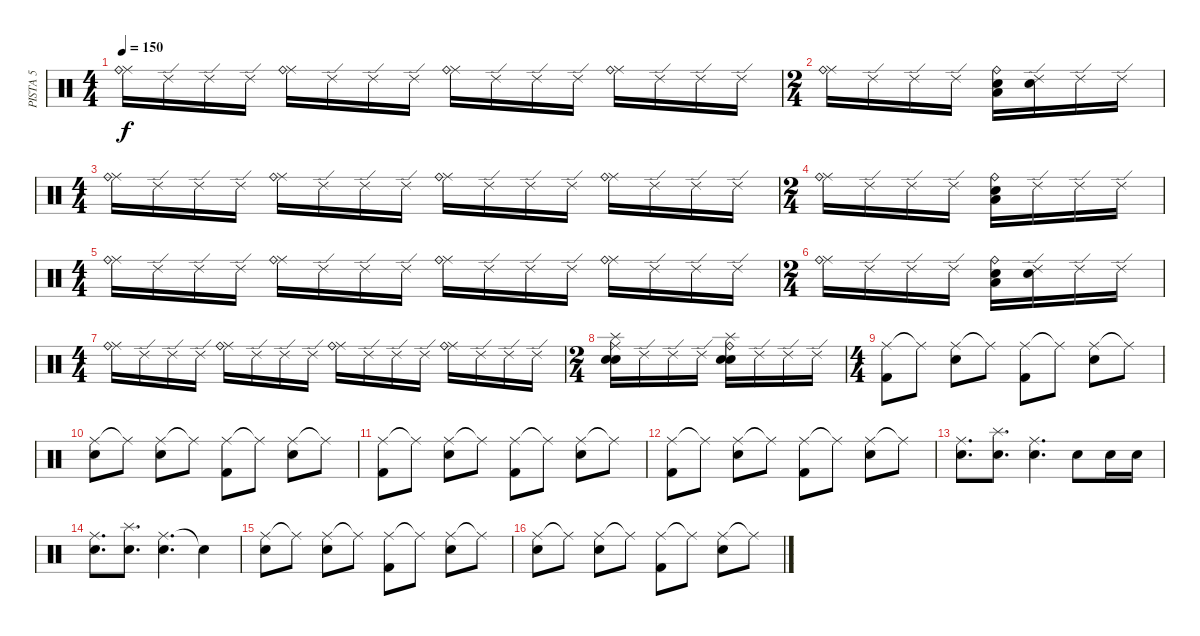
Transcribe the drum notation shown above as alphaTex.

\track ("PISTA 5" "PISTA 5") {instrument percussion}
\staff {score}
\articulation defaults
\ts (4 4)
\tempo 150
\clef neutral
\ks c
("Ride (middle)" "Ride (bell)").16{dy f} "Ride (edge) 2".16 "Ride (edge) 2".16 "Ride (edge) 2".16 ("Ride (middle)" "Ride (bell)").16 "Ride (edge) 2".16 "Ride (edge) 2".16 "Ride (edge) 2".16 ("Ride (middle)" "Ride (bell)").16 "Ride (edge) 2".16 "Ride (edge) 2".16 "Ride (edge) 2".16 ("Ride (middle)" "Ride (bell)").16 "Ride (edge) 2".16 "Ride (edge) 2".16 "Ride (edge) 2".16 |
\ts (2 4)
("Ride (middle)" "Ride (bell)").16 "Ride (edge) 2".16 "Ride (edge) 2".16 "Ride (edge) 2".16 ("Ride (bell)" "Low Floor Tom (hit)" "Snare (hit) 2").16 ("Ride (edge) 2" "Electric Snare (hit)").16 "Ride (edge) 2".16 "Ride (edge) 2".16 |
\ts (4 4)
("Ride (middle)" "Ride (bell)").16 "Ride (edge) 2".16 "Ride (edge) 2".16 "Ride (edge) 2".16 ("Ride (middle)" "Ride (bell)").16 "Ride (edge) 2".16 "Ride (edge) 2".16 "Ride (edge) 2".16 ("Ride (middle)" "Ride (bell)").16 "Ride (edge) 2".16 "Ride (edge) 2".16 "Ride (edge) 2".16 ("Ride (middle)" "Ride (bell)").16 "Ride (edge) 2".16 "Ride (edge) 2".16 "Ride (edge) 2".16 |
\ts (2 4)
("Ride (middle)" "Ride (bell)").16 "Ride (edge) 2".16 "Ride (edge) 2".16 "Ride (edge) 2".16 ("Ride (bell)" "Low Floor Tom (hit)" "Snare (hit) 2").16 "Ride (edge) 2".16 "Ride (edge) 2".16 "Ride (edge) 2".16 |
\ts (4 4)
("Ride (middle)" "Ride (bell)").16 "Ride (edge) 2".16 "Ride (edge) 2".16 "Ride (edge) 2".16 ("Ride (middle)" "Ride (bell)").16 "Ride (edge) 2".16 "Ride (edge) 2".16 "Ride (edge) 2".16 ("Ride (middle)" "Ride (bell)").16 "Ride (edge) 2".16 "Ride (edge) 2".16 "Ride (edge) 2".16 ("Ride (middle)" "Ride (bell)").16 "Ride (edge) 2".16 "Ride (edge) 2".16 "Ride (edge) 2".16 |
\ts (2 4)
("Ride (middle)" "Ride (bell)").16 "Ride (edge) 2".16 "Ride (edge) 2".16 "Ride (edge) 2".16 ("Ride (bell)" "Low Floor Tom (hit)" "Snare (hit) 2").16 ("Ride (edge) 2" "Electric Snare (hit)").16 "Ride (edge) 2".16 "Ride (edge) 2".16 |
\ts (4 4)
("Ride (middle)" "Ride (bell)").16 "Ride (edge) 2".16 "Ride (edge) 2".16 "Ride (edge) 2".16 ("Ride (middle)" "Ride (bell)").16 "Ride (edge) 2".16 "Ride (edge) 2".16 "Ride (edge) 2".16 ("Ride (middle)" "Ride (bell)").16 "Ride (edge) 2".16 "Ride (edge) 2".16 "Ride (edge) 2".16 ("Ride (middle)" "Ride (bell)").16 "Ride (edge) 2".16 "Ride (edge) 2".16 "Ride (edge) 2".16 |
\ts (2 4)
("Ride (middle)" "Electric Snare (hit)" "Snare (hit) 2" "Splash (hit)").16 "Ride (edge) 2".16 "Ride (edge) 2".16 "Ride (edge) 2".16 ("Ride (bell)" "Electric Snare (hit)" "Snare (hit) 2" "Splash (hit)").16 "Ride (edge) 2".16 "Ride (edge) 2".16 "Ride (edge) 2".16 |
\ts (4 4)
("Ride (middle)" "Kick (hit) 2").8 "Ride (middle)"{t}.8 ("Ride (middle)" "Electric Snare (hit)").8 "Ride (middle)"{t}.8 ("Ride (middle)" "Kick (hit) 2").8 "Ride (middle)"{t}.8 ("Ride (middle)" "Electric Snare (hit)").8 "Ride (middle)"{t}.8 |
("Ride (middle)" "Snare (hit)").8 "Ride (middle)"{t}.8 ("Ride (middle)" "Electric Snare (hit)").8 "Ride (middle)"{t}.8 ("Ride (middle)" "Kick (hit) 2").8 "Ride (middle)"{t}.8 ("Ride (middle)" "Electric Snare (hit)").8 "Ride (middle)"{t}.8 |
("Ride (middle)" "Kick (hit) 2").8 "Ride (middle)"{t}.8 ("Ride (middle)" "Electric Snare (hit)").8 "Ride (middle)"{t}.8 ("Ride (middle)" "Kick (hit) 2").8 "Ride (middle)"{t}.8 ("Ride (middle)" "Electric Snare (hit)").8 "Ride (middle)"{t}.8 |
("Ride (middle)" "Kick (hit) 2").8 "Ride (middle)"{t}.8 ("Ride (middle)" "Electric Snare (hit)").8 "Ride (middle)"{t}.8 ("Ride (middle)" "Kick (hit) 2").8 "Ride (middle)"{t}.8 ("Ride (middle)" "Electric Snare (hit)").8 "Ride (middle)"{t}.8 |
("Ride (middle)" "Electric Snare (hit)").8{d} ("Splash (hit)" "Electric Snare (hit)").8{d} ("Ride (middle)" "Electric Snare (hit)").4{d} "Electric Snare (hit)".8 "Electric Snare (hit)".16 "Electric Snare (hit)".16 |
("Ride (middle)" "Electric Snare (hit)").8{d} ("Splash (hit)" "Electric Snare (hit)").8{d} ("Ride (middle)" "Electric Snare (hit)").4{d} "Snare (hit)"{t}.4 |
("Ride (middle)" "Snare (hit)").8 "Ride (middle)"{t}.8 ("Ride (middle)" "Electric Snare (hit)").8 "Ride (middle)"{t}.8 ("Ride (middle)" "Kick (hit) 2").8 "Ride (middle)"{t}.8 ("Ride (middle)" "Electric Snare (hit)").8 "Ride (middle)"{t}.8 |
("Ride (middle)" "Snare (hit)").8 "Ride (middle)"{t}.8 ("Ride (middle)" "Electric Snare (hit)").8 "Ride (middle)"{t}.8 ("Ride (middle)" "Kick (hit) 2").8 "Ride (middle)"{t}.8 ("Ride (middle)" "Electric Snare (hit)").8 "Ride (middle)"{t}.8
